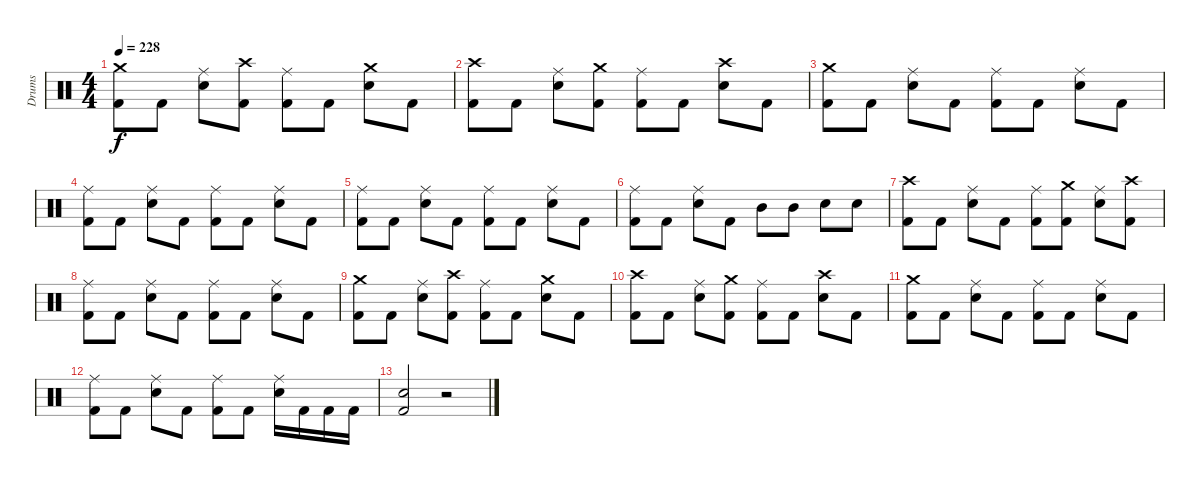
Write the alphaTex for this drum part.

\track ("Drums" "Drums") {instrument percussion}
\staff {score}
\articulation defaults
\ts (4 4)
\tempo 228
\clef neutral
\ks c
("Crash medium (hit)" "Kick (hit) 2").8{dy f} "Kick (hit) 2".8 ("Ride (middle)" "Snare (hit) 2").8 ("Crash high (hit)" "Kick (hit) 2").8 ("Ride (middle)" "Kick (hit) 2").8 "Kick (hit) 2".8 ("Crash medium (hit)" "Snare (hit) 2").8 "Kick (hit) 2".8 |
("Crash high (hit)" "Kick (hit) 2").8 "Kick (hit) 2".8 ("Ride (middle)" "Snare (hit) 2").8 ("Crash medium (hit)" "Kick (hit) 2").8 ("Ride (middle)" "Kick (hit) 2").8 "Kick (hit) 2".8 ("Crash high (hit)" "Snare (hit) 2").8 "Kick (hit) 2".8 |
("Crash medium (hit)" "Kick (hit) 2").8 "Kick (hit) 2".8 ("Ride (middle)" "Snare (hit) 2").8 "Kick (hit) 2".8 ("Ride (middle)" "Kick (hit) 2").8 "Kick (hit) 2".8 ("Ride (middle)" "Snare (hit) 2").8 "Kick (hit) 2".8 |
("Ride (middle)" "Kick (hit) 2").8 "Kick (hit) 2".8 ("Ride (middle)" "Snare (hit) 2").8 "Kick (hit) 2".8 ("Ride (middle)" "Kick (hit) 2").8 "Kick (hit) 2".8 ("Ride (middle)" "Snare (hit) 2").8 "Kick (hit) 2".8 |
("Ride (middle)" "Kick (hit) 2").8 "Kick (hit) 2".8 ("Ride (middle)" "Snare (hit) 2").8 "Kick (hit) 2".8 ("Ride (middle)" "Kick (hit) 2").8 "Kick (hit) 2".8 ("Ride (middle)" "Snare (hit) 2").8 "Kick (hit) 2".8 |
("Ride (middle)" "Kick (hit) 2").8 "Kick (hit) 2".8 ("Ride (middle)" "Snare (hit) 2").8 "Kick (hit) 2".8 "Mid Tom (hit)".8 "Mid Tom (hit)".8 "Snare (hit) 2".8 "Snare (hit) 2".8 |
("Crash high (hit)" "Kick (hit) 2").8 "Kick (hit) 2".8 ("Ride (middle)" "Snare (hit) 2").8 "Kick (hit) 2".8 ("Ride (middle)" "Kick (hit) 2").8 ("Crash medium (hit)" "Kick (hit) 2").8 ("Ride (middle)" "Snare (hit) 2").8 ("Crash high (hit)" "Kick (hit) 2").8 |
("Ride (middle)" "Kick (hit) 2").8 "Kick (hit) 2".8 ("Ride (middle)" "Snare (hit) 2").8 "Kick (hit) 2".8 ("Ride (middle)" "Kick (hit) 2").8 "Kick (hit) 2".8 ("Ride (middle)" "Snare (hit) 2").8 "Kick (hit) 2".8 |
("Crash medium (hit)" "Kick (hit) 2").8 "Kick (hit) 2".8 ("Ride (middle)" "Snare (hit) 2").8 ("Crash high (hit)" "Kick (hit) 2").8 ("Ride (middle)" "Kick (hit) 2").8 "Kick (hit) 2".8 ("Crash medium (hit)" "Snare (hit) 2").8 "Kick (hit) 2".8 |
("Crash high (hit)" "Kick (hit) 2").8 "Kick (hit) 2".8 ("Ride (middle)" "Snare (hit) 2").8 ("Crash medium (hit)" "Kick (hit) 2").8 ("Ride (middle)" "Kick (hit) 2").8 "Kick (hit) 2".8 ("Crash high (hit)" "Snare (hit) 2").8 "Kick (hit) 2".8 |
("Crash medium (hit)" "Kick (hit) 2").8 "Kick (hit) 2".8 ("Ride (middle)" "Snare (hit) 2").8 "Kick (hit) 2".8 ("Ride (middle)" "Kick (hit) 2").8 "Kick (hit) 2".8 ("Ride (middle)" "Snare (hit) 2").8 "Kick (hit) 2".8 |
("Ride (middle)" "Kick (hit) 2").8 "Kick (hit) 2".8 ("Ride (middle)" "Snare (hit) 2").8 "Kick (hit) 2".8 ("Ride (middle)" "Kick (hit) 2").8 "Kick (hit) 2".8 ("Ride (middle)" "Snare (hit) 2").16 "Kick (hit) 2".16 "Kick (hit) 2".16 "Kick (hit) 2".16 |
("Snare (hit) 2" "Kick (hit) 2").2 r.2
